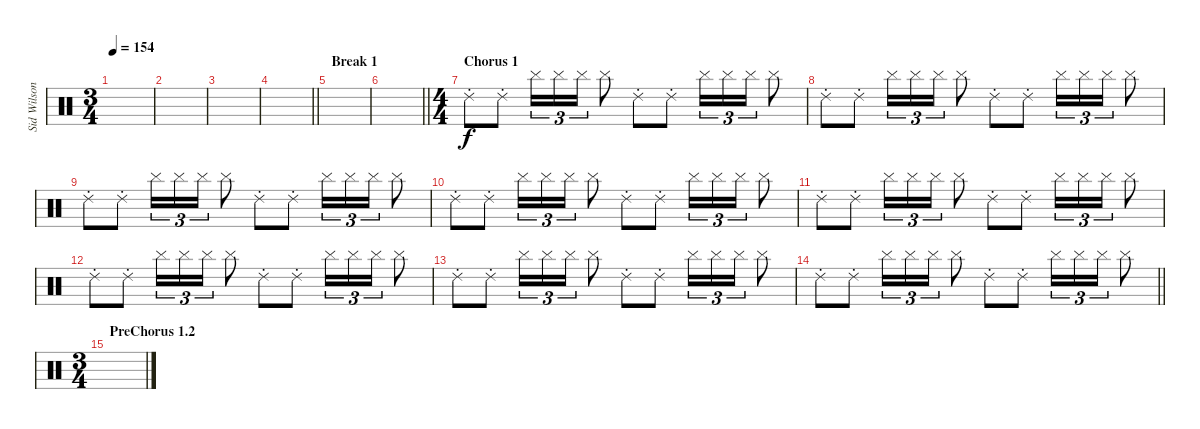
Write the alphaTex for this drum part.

\track ("Sid Wilson" "Sid Wilson") {instrument percussion}
\staff {score}
\articulation defaults
\ts (3 4)
\tempo 154
\clef neutral
\ks c
|
|
|
\barLineRight lightlight
|
\section ("" "Break 1")
|
\barLineRight lightlight
|
\ts (4 4)
\section ("" "Chorus 1")
"Ride (choke) 2".8 "Ride (choke) 2".8 "Cymbal (hit)".16{tu (3 2)} "Cymbal (hit)".16{tu (3 2)} "Cymbal (hit)".16{tu (3 2)} "Cymbal (hit)".8 "Ride (choke) 2".8 "Ride (choke) 2".8 "Cymbal (hit)".16{tu (3 2)} "Cymbal (hit)".16{tu (3 2)} "Cymbal (hit)".16{tu (3 2)} "Cymbal (hit)".8 |
"Ride (choke) 2".8 "Ride (choke) 2".8 "Cymbal (hit)".16{tu (3 2)} "Cymbal (hit)".16{tu (3 2)} "Cymbal (hit)".16{tu (3 2)} "Cymbal (hit)".8 "Ride (choke) 2".8 "Ride (choke) 2".8 "Cymbal (hit)".16{tu (3 2)} "Cymbal (hit)".16{tu (3 2)} "Cymbal (hit)".16{tu (3 2)} "Cymbal (hit)".8 |
"Ride (choke) 2".8 "Ride (choke) 2".8 "Cymbal (hit)".16{tu (3 2)} "Cymbal (hit)".16{tu (3 2)} "Cymbal (hit)".16{tu (3 2)} "Cymbal (hit)".8 "Ride (choke) 2".8 "Ride (choke) 2".8 "Cymbal (hit)".16{tu (3 2)} "Cymbal (hit)".16{tu (3 2)} "Cymbal (hit)".16{tu (3 2)} "Cymbal (hit)".8 |
"Ride (choke) 2".8 "Ride (choke) 2".8 "Cymbal (hit)".16{tu (3 2)} "Cymbal (hit)".16{tu (3 2)} "Cymbal (hit)".16{tu (3 2)} "Cymbal (hit)".8 "Ride (choke) 2".8 "Ride (choke) 2".8 "Cymbal (hit)".16{tu (3 2)} "Cymbal (hit)".16{tu (3 2)} "Cymbal (hit)".16{tu (3 2)} "Cymbal (hit)".8 |
"Ride (choke) 2".8 "Ride (choke) 2".8 "Cymbal (hit)".16{tu (3 2)} "Cymbal (hit)".16{tu (3 2)} "Cymbal (hit)".16{tu (3 2)} "Cymbal (hit)".8 "Ride (choke) 2".8 "Ride (choke) 2".8 "Cymbal (hit)".16{tu (3 2)} "Cymbal (hit)".16{tu (3 2)} "Cymbal (hit)".16{tu (3 2)} "Cymbal (hit)".8 |
"Ride (choke) 2".8 "Ride (choke) 2".8 "Cymbal (hit)".16{tu (3 2)} "Cymbal (hit)".16{tu (3 2)} "Cymbal (hit)".16{tu (3 2)} "Cymbal (hit)".8 "Ride (choke) 2".8 "Ride (choke) 2".8 "Cymbal (hit)".16{tu (3 2)} "Cymbal (hit)".16{tu (3 2)} "Cymbal (hit)".16{tu (3 2)} "Cymbal (hit)".8 |
"Ride (choke) 2".8 "Ride (choke) 2".8 "Cymbal (hit)".16{tu (3 2)} "Cymbal (hit)".16{tu (3 2)} "Cymbal (hit)".16{tu (3 2)} "Cymbal (hit)".8 "Ride (choke) 2".8 "Ride (choke) 2".8 "Cymbal (hit)".16{tu (3 2)} "Cymbal (hit)".16{tu (3 2)} "Cymbal (hit)".16{tu (3 2)} "Cymbal (hit)".8 |
\barLineRight lightlight "Ride (choke) 2".8 "Ride (choke) 2".8 "Cymbal (hit)".16{tu (3 2)} "Cymbal (hit)".16{tu (3 2)} "Cymbal (hit)".16{tu (3 2)} "Cymbal (hit)".8 "Ride (choke) 2".8 "Ride (choke) 2".8 "Cymbal (hit)".16{tu (3 2)} "Cymbal (hit)".16{tu (3 2)} "Cymbal (hit)".16{tu (3 2)} "Cymbal (hit)".8
|
\ts (3 4)
\section ("" "PreChorus 1.2")
